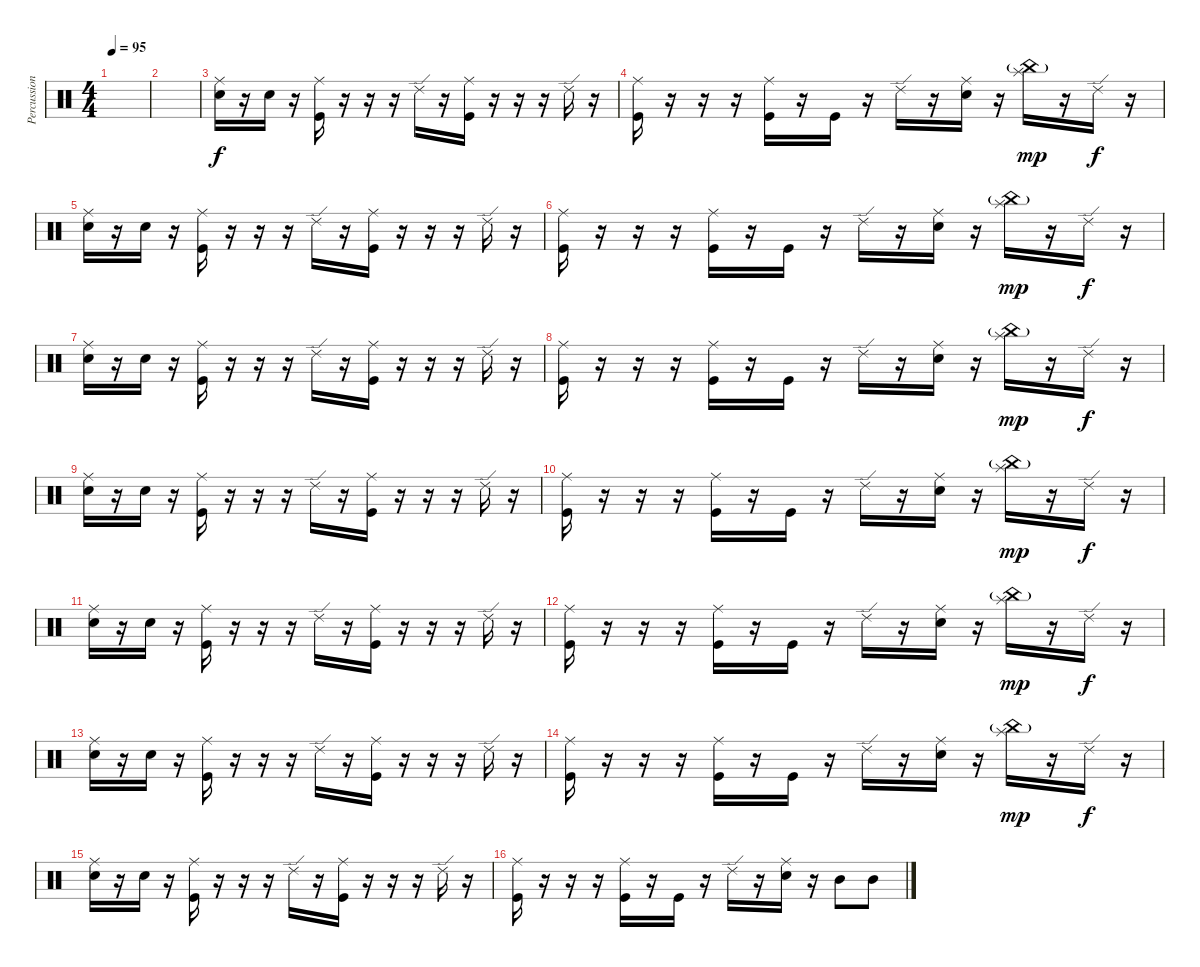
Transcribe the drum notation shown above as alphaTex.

\track ("Percussions" "Percussion") {instrument percussion}
\staff {score}
\articulation defaults
\ts (4 4)
\tempo 95
\clef neutral
\ks c
|
|
("Ride (middle)" "Electric Snare (hit)").16 r.16 "Electric Snare (hit)".16 r.16 ("Ride (middle)" "Kick (hit)").16 r.16 r.16 r.16 "Ride (edge) 2".16 r.16 ("Ride (middle)" "Kick (hit)").16 r.16 r.16 r.16 "Ride (edge) 2".16 r.16 |
("Ride (middle)" "Kick (hit)").16 r.16 r.16 r.16 ("Ride (middle)" "Kick (hit)").16 r.16 "Kick (hit)".16 r.16 "Ride (edge) 2".16 r.16 ("Ride (middle)" "Electric Snare (hit)").16 r.16 ("Splash (hit)" "China (hit)"{g}).16{dy mp} r.16 "Ride (edge) 2".16{dy f} r.16 |
("Ride (middle)" "Electric Snare (hit)").16 r.16 "Electric Snare (hit)".16 r.16 ("Ride (middle)" "Kick (hit)").16 r.16 r.16 r.16 "Ride (edge) 2".16 r.16 ("Ride (middle)" "Kick (hit)").16 r.16 r.16 r.16 "Ride (edge) 2".16 r.16 |
("Ride (middle)" "Kick (hit)").16 r.16 r.16 r.16 ("Ride (middle)" "Kick (hit)").16 r.16 "Kick (hit)".16 r.16 "Ride (edge) 2".16 r.16 ("Ride (middle)" "Electric Snare (hit)").16 r.16 ("Splash (hit)" "China (hit)"{g}).16{dy mp} r.16 "Ride (edge) 2".16{dy f} r.16 |
("Ride (middle)" "Electric Snare (hit)").16 r.16 "Electric Snare (hit)".16 r.16 ("Ride (middle)" "Kick (hit)").16 r.16 r.16 r.16 "Ride (edge) 2".16 r.16 ("Ride (middle)" "Kick (hit)").16 r.16 r.16 r.16 "Ride (edge) 2".16 r.16 |
("Ride (middle)" "Kick (hit)").16 r.16 r.16 r.16 ("Ride (middle)" "Kick (hit)").16 r.16 "Kick (hit)".16 r.16 "Ride (edge) 2".16 r.16 ("Ride (middle)" "Electric Snare (hit)").16 r.16 ("Splash (hit)" "China (hit)"{g}).16{dy mp} r.16 "Ride (edge) 2".16{dy f} r.16 |
("Ride (middle)" "Electric Snare (hit)").16 r.16 "Electric Snare (hit)".16 r.16 ("Ride (middle)" "Kick (hit)").16 r.16 r.16 r.16 "Ride (edge) 2".16 r.16 ("Ride (middle)" "Kick (hit)").16 r.16 r.16 r.16 "Ride (edge) 2".16 r.16 |
("Ride (middle)" "Kick (hit)").16 r.16 r.16 r.16 ("Ride (middle)" "Kick (hit)").16 r.16 "Kick (hit)".16 r.16 "Ride (edge) 2".16 r.16 ("Ride (middle)" "Electric Snare (hit)").16 r.16 ("Splash (hit)" "China (hit)"{g}).16{dy mp} r.16 "Ride (edge) 2".16{dy f} r.16 |
("Ride (middle)" "Electric Snare (hit)").16 r.16 "Electric Snare (hit)".16 r.16 ("Ride (middle)" "Kick (hit)").16 r.16 r.16 r.16 "Ride (edge) 2".16 r.16 ("Ride (middle)" "Kick (hit)").16 r.16 r.16 r.16 "Ride (edge) 2".16 r.16 |
("Ride (middle)" "Kick (hit)").16 r.16 r.16 r.16 ("Ride (middle)" "Kick (hit)").16 r.16 "Kick (hit)".16 r.16 "Ride (edge) 2".16 r.16 ("Ride (middle)" "Electric Snare (hit)").16 r.16 ("Splash (hit)" "China (hit)"{g}).16{dy mp} r.16 "Ride (edge) 2".16{dy f} r.16 |
("Ride (middle)" "Electric Snare (hit)").16 r.16 "Electric Snare (hit)".16 r.16 ("Ride (middle)" "Kick (hit)").16 r.16 r.16 r.16 "Ride (edge) 2".16 r.16 ("Ride (middle)" "Kick (hit)").16 r.16 r.16 r.16 "Ride (edge) 2".16 r.16 |
("Ride (middle)" "Kick (hit)").16 r.16 r.16 r.16 ("Ride (middle)" "Kick (hit)").16 r.16 "Kick (hit)".16 r.16 "Ride (edge) 2".16 r.16 ("Ride (middle)" "Electric Snare (hit)").16 r.16 ("Splash (hit)" "China (hit)"{g}).16{dy mp} r.16 "Ride (edge) 2".16{dy f} r.16 |
("Ride (middle)" "Electric Snare (hit)").16 r.16 "Electric Snare (hit)".16 r.16 ("Ride (middle)" "Kick (hit)").16 r.16 r.16 r.16 "Ride (edge) 2".16 r.16 ("Ride (middle)" "Kick (hit)").16 r.16 r.16 r.16 "Ride (edge) 2".16 r.16 |
("Ride (middle)" "Kick (hit)").16 r.16 r.16 r.16 ("Ride (middle)" "Kick (hit)").16 r.16 "Kick (hit)".16 r.16 "Ride (edge) 2".16 r.16 ("Ride (middle)" "Electric Snare (hit)").16 r.16 "Mid Tom (hit)".8 "Mid Tom (hit)".8
